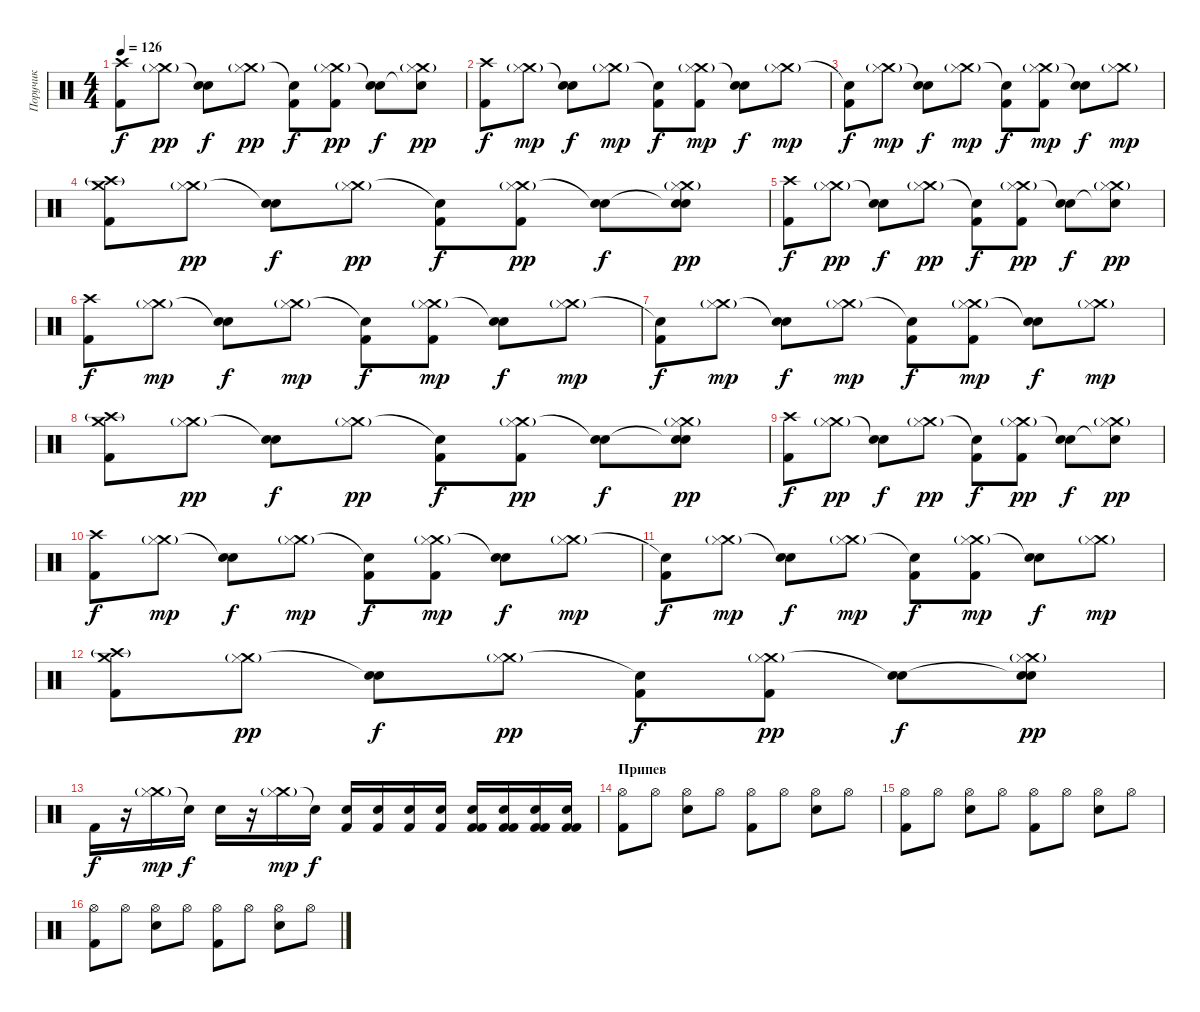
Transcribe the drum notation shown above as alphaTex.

\track ("Поручик" "Поручик") {instrument percussion}
\staff {score}
\articulation defaults
\ts (4 4)
\tempo 126
\clef neutral
\ks c
("Kick (hit) 2" "Crash high (hit)").8{dy f} ("Crash medium (hit)"{g} "Hi-Hat (closed)").8{dy pp} ("Snare (hit) 2" "Snare (hit)"{t}).8{dy f} ("Crash medium (hit)"{g} "Hi-Hat (closed)").8{dy pp} ("Kick (hit) 2" "Snare (hit)"{t}).8{dy f} ("Kick (hit) 2" "Crash medium (hit)"{g} "Hi-Hat (closed)").8{dy pp} ("Snare (hit) 2" "Snare (hit)"{t}).8{dy f} ("Crash medium (hit)"{g} "Snare (hit)"{t} "Hi-Hat (closed)").8{dy pp} |
("Kick (hit) 2" "Crash high (hit)").8{dy f} ("Crash medium (hit)"{g} "Hi-Hat (closed)").8{dy mp} ("Snare (hit) 2" "Snare (hit)"{t}).8{dy f} ("Crash medium (hit)"{g} "Hi-Hat (closed)").8{dy mp} ("Kick (hit) 2" "Snare (hit)"{t}).8{dy f} ("Kick (hit) 2" "Crash medium (hit)"{g} "Hi-Hat (closed)").8{dy mp} ("Snare (hit) 2" "Snare (hit)"{t}).8{dy f} ("Crash medium (hit)"{g} "Hi-Hat (closed)").8{dy mp} |
("Kick (hit) 2" "Snare (hit)"{t}).8{dy f} ("Crash medium (hit)"{g} "Hi-Hat (closed)").8{dy mp} ("Snare (hit) 2" "Snare (hit)"{t}).8{dy f} ("Crash medium (hit)"{g} "Hi-Hat (closed)").8{dy mp} ("Kick (hit) 2" "Snare (hit)"{t}).8{dy f} ("Kick (hit) 2" "Crash medium (hit)"{g} "Hi-Hat (closed)").8{dy mp} ("Snare (hit) 2" "Snare (hit)"{t}).8{dy f} ("Crash medium (hit)"{g} "Hi-Hat (closed)").8{dy mp} |
("Kick (hit) 2" "Crash medium (hit)" "Crash high (hit)"{g}).8 ("Crash medium (hit)"{g} "Hi-Hat (closed)").8{dy pp} ("Snare (hit) 2" "Snare (hit)"{t}).8{dy f} ("Crash medium (hit)"{g} "Hi-Hat (closed)").8{dy pp} ("Kick (hit) 2" "Snare (hit)"{t}).8{dy f} ("Kick (hit) 2" "Crash medium (hit)"{g} "Hi-Hat (closed)").8{dy pp} ("Snare (hit) 2" "Snare (hit)"{t}).8{dy f} ("Crash medium (hit)"{g} "Snare (hit)"{t} "Hi-Hat (closed)" "Snare (hit)").8{dy pp} |
("Kick (hit) 2" "Crash high (hit)").8{dy f} ("Crash medium (hit)"{g} "Hi-Hat (closed)").8{dy pp} ("Snare (hit) 2" "Snare (hit)"{t}).8{dy f} ("Crash medium (hit)"{g} "Hi-Hat (closed)").8{dy pp} ("Kick (hit) 2" "Snare (hit)"{t}).8{dy f} ("Kick (hit) 2" "Crash medium (hit)"{g} "Hi-Hat (closed)").8{dy pp} ("Snare (hit) 2" "Snare (hit)"{t}).8{dy f} ("Crash medium (hit)"{g} "Snare (hit)"{t} "Hi-Hat (closed)").8{dy pp} |
("Kick (hit) 2" "Crash high (hit)").8{dy f} ("Crash medium (hit)"{g} "Hi-Hat (closed)").8{dy mp} ("Snare (hit) 2" "Snare (hit)"{t}).8{dy f} ("Crash medium (hit)"{g} "Hi-Hat (closed)").8{dy mp} ("Kick (hit) 2" "Snare (hit)"{t}).8{dy f} ("Kick (hit) 2" "Crash medium (hit)"{g} "Hi-Hat (closed)").8{dy mp} ("Snare (hit) 2" "Snare (hit)"{t}).8{dy f} ("Crash medium (hit)"{g} "Hi-Hat (closed)").8{dy mp} |
("Kick (hit) 2" "Snare (hit)"{t}).8{dy f} ("Crash medium (hit)"{g} "Hi-Hat (closed)").8{dy mp} ("Snare (hit) 2" "Snare (hit)"{t}).8{dy f} ("Crash medium (hit)"{g} "Hi-Hat (closed)").8{dy mp} ("Kick (hit) 2" "Snare (hit)"{t}).8{dy f} ("Kick (hit) 2" "Crash medium (hit)"{g} "Hi-Hat (closed)").8{dy mp} ("Snare (hit) 2" "Snare (hit)"{t}).8{dy f} ("Crash medium (hit)"{g} "Hi-Hat (closed)").8{dy mp} |
("Kick (hit) 2" "Crash medium (hit)" "Crash high (hit)"{g}).8 ("Crash medium (hit)"{g} "Hi-Hat (closed)").8{dy pp} ("Snare (hit) 2" "Snare (hit)"{t}).8{dy f} ("Crash medium (hit)"{g} "Hi-Hat (closed)").8{dy pp} ("Kick (hit) 2" "Snare (hit)"{t}).8{dy f} ("Kick (hit) 2" "Crash medium (hit)"{g} "Hi-Hat (closed)").8{dy pp} ("Snare (hit) 2" "Snare (hit)"{t}).8{dy f} ("Crash medium (hit)"{g} "Snare (hit)"{t} "Hi-Hat (closed)" "Snare (hit)").8{dy pp} |
("Kick (hit) 2" "Crash high (hit)").8{dy f} ("Crash medium (hit)"{g} "Hi-Hat (closed)").8{dy pp} ("Snare (hit) 2" "Snare (hit)"{t}).8{dy f} ("Crash medium (hit)"{g} "Hi-Hat (closed)").8{dy pp} ("Kick (hit) 2" "Snare (hit)"{t}).8{dy f} ("Kick (hit) 2" "Crash medium (hit)"{g} "Hi-Hat (closed)").8{dy pp} ("Snare (hit) 2" "Snare (hit)"{t}).8{dy f} ("Crash medium (hit)"{g} "Snare (hit)"{t} "Hi-Hat (closed)").8{dy pp} |
("Kick (hit) 2" "Crash high (hit)").8{dy f} ("Crash medium (hit)"{g} "Hi-Hat (closed)").8{dy mp} ("Snare (hit) 2" "Snare (hit)"{t}).8{dy f} ("Crash medium (hit)"{g} "Hi-Hat (closed)").8{dy mp} ("Kick (hit) 2" "Snare (hit)"{t}).8{dy f} ("Kick (hit) 2" "Crash medium (hit)"{g} "Hi-Hat (closed)").8{dy mp} ("Snare (hit) 2" "Snare (hit)"{t}).8{dy f} ("Crash medium (hit)"{g} "Hi-Hat (closed)").8{dy mp} |
("Kick (hit) 2" "Snare (hit)"{t}).8{dy f} ("Crash medium (hit)"{g} "Hi-Hat (closed)").8{dy mp} ("Snare (hit) 2" "Snare (hit)"{t}).8{dy f} ("Crash medium (hit)"{g} "Hi-Hat (closed)").8{dy mp} ("Kick (hit) 2" "Snare (hit)"{t}).8{dy f} ("Kick (hit) 2" "Crash medium (hit)"{g} "Hi-Hat (closed)").8{dy mp} ("Snare (hit) 2" "Snare (hit)"{t}).8{dy f} ("Crash medium (hit)"{g} "Hi-Hat (closed)").8{dy mp} |
("Kick (hit) 2" "Crash medium (hit)" "Crash high (hit)"{g}).8 ("Crash medium (hit)"{g} "Hi-Hat (closed)").8{dy pp} ("Snare (hit) 2" "Snare (hit)"{t}).8{dy f} ("Crash medium (hit)"{g} "Hi-Hat (closed)").8{dy pp} ("Kick (hit) 2" "Snare (hit)"{t}).8{dy f} ("Kick (hit) 2" "Crash medium (hit)"{g} "Hi-Hat (closed)").8{dy pp} ("Snare (hit) 2" "Snare (hit)"{t}).8{dy f} ("Crash medium (hit)"{g} "Snare (hit)"{t} "Hi-Hat (closed)" "Snare (hit)").8{dy pp} |
"Kick (hit) 2".16{dy f} r.16 ("Crash medium (hit)"{g} "Hi-Hat (closed)").16{dy mp} "Snare (hit)"{t}.16{dy f} "Snare (hit) 2".16 r.16 ("Crash medium (hit)"{g} "Hi-Hat (closed)").16{dy mp} "Snare (hit)"{t}.16{dy f} ("Electric Snare (hit)" "Kick (hit) 2").16 ("Electric Snare (hit)" "Kick (hit) 2").16 ("Electric Snare (hit)" "Kick (hit) 2").16 ("Electric Snare (hit)" "Kick (hit) 2").16 ("Electric Snare (hit)" "Kick (hit) 2" "Kick (hit) 2").16 ("Electric Snare (hit)" "Kick (hit) 2" "Kick (hit) 2").16 ("Electric Snare (hit)" "Kick (hit) 2" "Kick (hit) 2").16 ("Electric Snare (hit)" "Kick (hit) 2" "Kick (hit) 2").16 |
\section ("" "Припев")
("Hi-Hat (open)" "Kick (hit) 2").8 "Hi-Hat (open)".8 ("Hi-Hat (open)" "Snare (hit) 2").8 "Hi-Hat (open)".8 ("Hi-Hat (open)" "Kick (hit) 2").8 "Hi-Hat (open)".8 ("Hi-Hat (open)" "Snare (hit) 2").8 "Hi-Hat (open)".8 |
("Hi-Hat (open)" "Kick (hit) 2").8 "Hi-Hat (open)".8 ("Hi-Hat (open)" "Snare (hit) 2").8 "Hi-Hat (open)".8 ("Hi-Hat (open)" "Kick (hit) 2").8 "Hi-Hat (open)".8 ("Hi-Hat (open)" "Snare (hit) 2").8 "Hi-Hat (open)".8 |
("Hi-Hat (open)" "Kick (hit) 2").8 "Hi-Hat (open)".8 ("Hi-Hat (open)" "Snare (hit) 2").8 "Hi-Hat (open)".8 ("Hi-Hat (open)" "Kick (hit) 2").8 "Hi-Hat (open)".8 ("Hi-Hat (open)" "Snare (hit) 2").8 "Hi-Hat (open)".8
